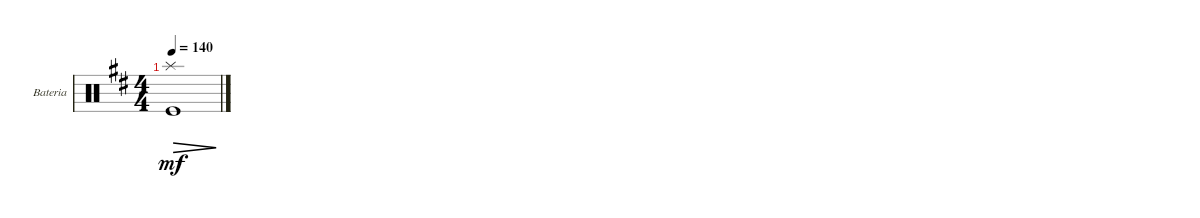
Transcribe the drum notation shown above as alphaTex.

\defaultSystemsLayout 4
\bracketExtendMode groupsimilarinstruments
\firstSystemTrackNameOrientation horizontal
\otherSystemsTrackNameOrientation horizontal
\track ("Bateria" "Bateria") {instrument percussion}
\staff {score}
\articulation defaults
\ts (4 4)
\tempo 140
\clef neutral
\ks d
("Kick (hit)" "Splash (hit)").1{dec dy mf}
